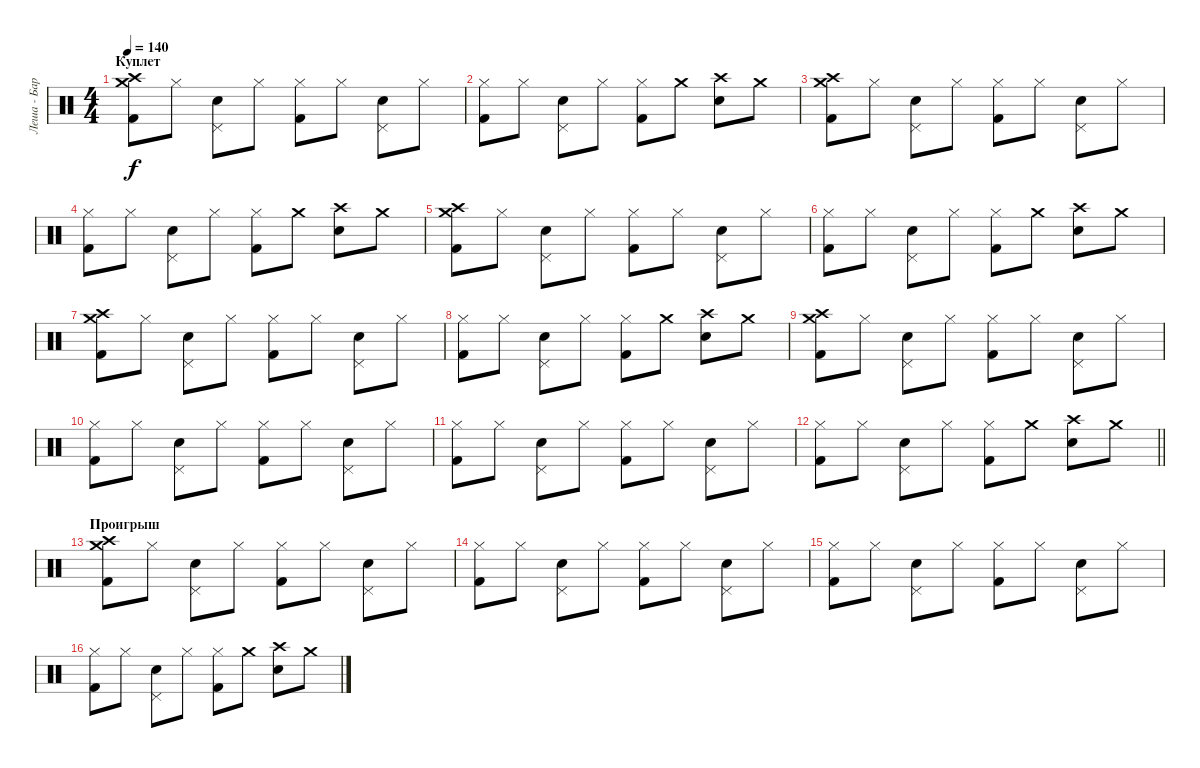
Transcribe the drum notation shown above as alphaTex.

\track ("Леша - Барабаны" "Леша - Бар") {instrument percussion}
\staff {score}
\articulation defaults
\ts (4 4)
\section ("" "Куплет")
\tempo 140
\clef neutral
\ks c
("Crash high (hit)" "Crash medium (hit)" "Kick (hit) 2").8{dy f} "Hi-Hat (closed)".8 ("Pedal Hi-Hat (hit)" "Snare (hit) 2").8 "Hi-Hat (closed)".8 ("Hi-Hat (closed)" "Kick (hit) 2").8 "Hi-Hat (closed)".8 ("Pedal Hi-Hat (hit)" "Snare (hit) 2").8 "Hi-Hat (closed)".8 |
("Hi-Hat (closed)" "Kick (hit) 2").8 "Hi-Hat (closed)".8 ("Pedal Hi-Hat (hit)" "Snare (hit) 2").8 "Hi-Hat (closed)".8 ("Hi-Hat (closed)" "Kick (hit) 2").8 "Crash medium (hit)".8 ("Crash high (hit)" "Snare (hit) 2").8 "Crash medium (hit)".8 |
("Crash high (hit)" "Crash medium (hit)" "Kick (hit) 2").8 "Hi-Hat (closed)".8 ("Pedal Hi-Hat (hit)" "Snare (hit) 2").8 "Hi-Hat (closed)".8 ("Hi-Hat (closed)" "Kick (hit) 2").8 "Hi-Hat (closed)".8 ("Pedal Hi-Hat (hit)" "Snare (hit) 2").8 "Hi-Hat (closed)".8 |
("Hi-Hat (closed)" "Kick (hit) 2").8 "Hi-Hat (closed)".8 ("Pedal Hi-Hat (hit)" "Snare (hit) 2").8 "Hi-Hat (closed)".8 ("Hi-Hat (closed)" "Kick (hit) 2").8 "Crash medium (hit)".8 ("Crash high (hit)" "Snare (hit) 2").8 "Crash medium (hit)".8 |
("Crash high (hit)" "Crash medium (hit)" "Kick (hit) 2").8 "Hi-Hat (closed)".8 ("Pedal Hi-Hat (hit)" "Snare (hit) 2").8 "Hi-Hat (closed)".8 ("Hi-Hat (closed)" "Kick (hit) 2").8 "Hi-Hat (closed)".8 ("Pedal Hi-Hat (hit)" "Snare (hit) 2").8 "Hi-Hat (closed)".8 |
("Hi-Hat (closed)" "Kick (hit) 2").8 "Hi-Hat (closed)".8 ("Pedal Hi-Hat (hit)" "Snare (hit) 2").8 "Hi-Hat (closed)".8 ("Hi-Hat (closed)" "Kick (hit) 2").8 "Crash medium (hit)".8 ("Crash high (hit)" "Snare (hit) 2").8 "Crash medium (hit)".8 |
("Crash high (hit)" "Crash medium (hit)" "Kick (hit) 2").8 "Hi-Hat (closed)".8 ("Pedal Hi-Hat (hit)" "Snare (hit) 2").8 "Hi-Hat (closed)".8 ("Hi-Hat (closed)" "Kick (hit) 2").8 "Hi-Hat (closed)".8 ("Pedal Hi-Hat (hit)" "Snare (hit) 2").8 "Hi-Hat (closed)".8 |
("Hi-Hat (closed)" "Kick (hit) 2").8 "Hi-Hat (closed)".8 ("Pedal Hi-Hat (hit)" "Snare (hit) 2").8 "Hi-Hat (closed)".8 ("Hi-Hat (closed)" "Kick (hit) 2").8 "Crash medium (hit)".8 ("Crash high (hit)" "Snare (hit) 2").8 "Crash medium (hit)".8 |
("Crash high (hit)" "Crash medium (hit)" "Kick (hit) 2").8 "Hi-Hat (closed)".8 ("Pedal Hi-Hat (hit)" "Snare (hit) 2").8 "Hi-Hat (closed)".8 ("Hi-Hat (closed)" "Kick (hit) 2").8 "Hi-Hat (closed)".8 ("Pedal Hi-Hat (hit)" "Snare (hit) 2").8 "Hi-Hat (closed)".8 |
("Hi-Hat (closed)" "Kick (hit) 2").8 "Hi-Hat (closed)".8 ("Pedal Hi-Hat (hit)" "Snare (hit) 2").8 "Hi-Hat (closed)".8 ("Hi-Hat (closed)" "Kick (hit) 2").8 "Hi-Hat (closed)".8 ("Pedal Hi-Hat (hit)" "Snare (hit) 2").8 "Hi-Hat (closed)".8 |
("Hi-Hat (closed)" "Kick (hit) 2").8 "Hi-Hat (closed)".8 ("Pedal Hi-Hat (hit)" "Snare (hit) 2").8 "Hi-Hat (closed)".8 ("Hi-Hat (closed)" "Kick (hit) 2").8 "Hi-Hat (closed)".8 ("Pedal Hi-Hat (hit)" "Snare (hit) 2").8 "Hi-Hat (closed)".8 |
\barLineRight lightlight
("Hi-Hat (closed)" "Kick (hit) 2").8 "Hi-Hat (closed)".8 ("Pedal Hi-Hat (hit)" "Snare (hit) 2").8 "Hi-Hat (closed)".8 ("Hi-Hat (closed)" "Kick (hit) 2").8 "Crash medium (hit)".8 ("Crash high (hit)" "Snare (hit) 2").8 "Crash medium (hit)".8 |
\section ("" "Проигрыш")
("Crash high (hit)" "Crash medium (hit)" "Kick (hit) 2").8 "Hi-Hat (closed)".8 ("Pedal Hi-Hat (hit)" "Snare (hit) 2").8 "Hi-Hat (closed)".8 ("Hi-Hat (closed)" "Kick (hit) 2").8 "Hi-Hat (closed)".8 ("Pedal Hi-Hat (hit)" "Snare (hit) 2").8 "Hi-Hat (closed)".8 |
("Hi-Hat (closed)" "Kick (hit) 2").8 "Hi-Hat (closed)".8 ("Pedal Hi-Hat (hit)" "Snare (hit) 2").8 "Hi-Hat (closed)".8 ("Hi-Hat (closed)" "Kick (hit) 2").8 "Hi-Hat (closed)".8 ("Pedal Hi-Hat (hit)" "Snare (hit) 2").8 "Hi-Hat (closed)".8 |
("Hi-Hat (closed)" "Kick (hit) 2").8 "Hi-Hat (closed)".8 ("Pedal Hi-Hat (hit)" "Snare (hit) 2").8 "Hi-Hat (closed)".8 ("Hi-Hat (closed)" "Kick (hit) 2").8 "Hi-Hat (closed)".8 ("Pedal Hi-Hat (hit)" "Snare (hit) 2").8 "Hi-Hat (closed)".8 |
("Hi-Hat (closed)" "Kick (hit) 2").8 "Hi-Hat (closed)".8 ("Pedal Hi-Hat (hit)" "Snare (hit) 2").8 "Hi-Hat (closed)".8 ("Hi-Hat (closed)" "Kick (hit) 2").8 "Crash medium (hit)".8 ("Crash high (hit)" "Snare (hit) 2").8 "Crash medium (hit)".8
